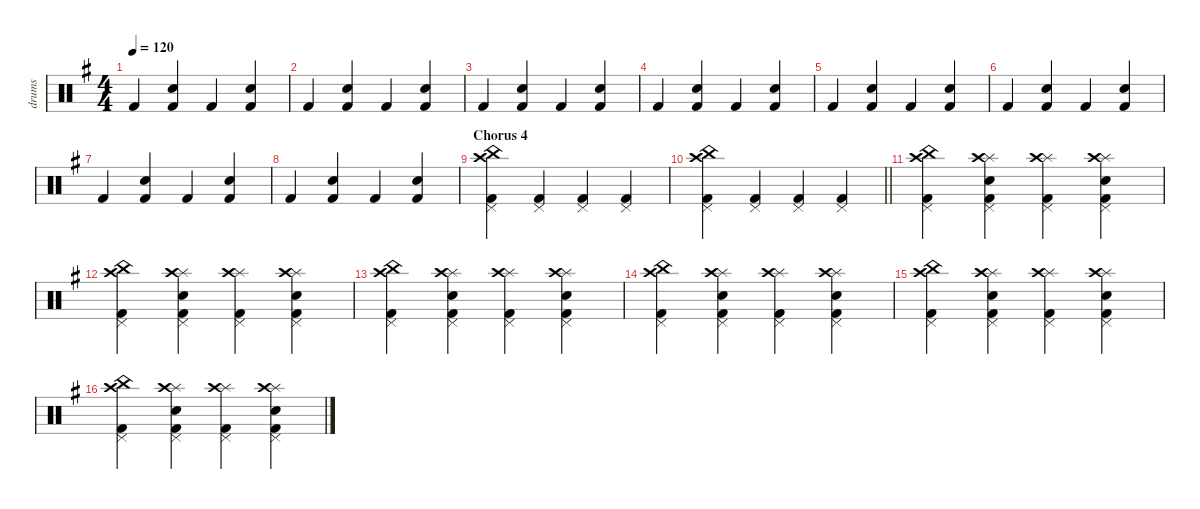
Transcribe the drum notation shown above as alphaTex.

\defaultSystemsLayout 4
\hideDynamics
\bracketExtendMode nobrackets
\otherSystemsTrackNameOrientation horizontal
\track ("drums" "drums") {instrument percussion}
\staff {score}
\articulation defaults
\ts (4 4)
\tempo 120
\clef neutral
\scale
1.07945
\ks eminor "Kick (hit) 2"{acc forcenatural}.4{dy mf beam Up}
("Kick (hit) 2"{acc forcenatural} "Snare (hit) 2"{acc forcenatural}).4{beam Up} "Kick (hit) 2"{acc forcenatural}.4{beam Up} ("Kick (hit) 2"{acc forcenatural} "Snare (hit) 2"{acc forcenatural}).4{beam Up} |
\scale
0.973518 "Kick (hit) 2"{acc forcenatural}.4{beam Up} ("Kick (hit) 2"{acc forcenatural} "Snare (hit) 2"{acc forcenatural}).4{beam Up} "Kick (hit) 2"{acc forcenatural}.4{beam Up} ("Kick (hit) 2"{acc forcenatural} "Snare (hit) 2"{acc forcenatural}).4{beam Up} |
\scale
0.973518 "Kick (hit) 2"{acc forcenatural}.4{beam Up} ("Kick (hit) 2"{acc forcenatural} "Snare (hit) 2"{acc forcenatural}).4{beam Up} "Kick (hit) 2"{acc forcenatural}.4{beam Up} ("Kick (hit) 2"{acc forcenatural} "Snare (hit) 2"{acc forcenatural}).4{beam Up} |
\scale
0.973518 "Kick (hit) 2"{acc forcenatural}.4{beam Up} ("Kick (hit) 2"{acc forcenatural} "Snare (hit) 2"{acc forcenatural}).4{beam Up} "Kick (hit) 2"{acc forcenatural}.4{beam Up} ("Kick (hit) 2"{acc forcenatural} "Snare (hit) 2"{acc forcenatural}).4{beam Up} |
\scale
1.07945 "Kick (hit) 2"{acc forcenatural}.4{beam Up} ("Kick (hit) 2"{acc forcenatural} "Snare (hit) 2"{acc forcenatural}).4{beam Up} "Kick (hit) 2"{acc forcenatural}.4{beam Up} ("Kick (hit) 2"{acc forcenatural} "Snare (hit) 2"{acc forcenatural}).4{beam Up} |
\scale
0.973518 "Kick (hit) 2"{acc forcenatural}.4{beam Up} ("Kick (hit) 2"{acc forcenatural} "Snare (hit) 2"{acc forcenatural}).4{beam Up} "Kick (hit) 2"{acc forcenatural}.4{beam Up} ("Kick (hit) 2"{acc forcenatural} "Snare (hit) 2"{acc forcenatural}).4{beam Up} |
\scale
0.973518 "Kick (hit) 2"{acc forcenatural}.4{beam Up} ("Kick (hit) 2"{acc forcenatural} "Snare (hit) 2"{acc forcenatural}).4{beam Up} "Kick (hit) 2"{acc forcenatural}.4{beam Up} ("Kick (hit) 2"{acc forcenatural} "Snare (hit) 2"{acc forcenatural}).4{beam Up} |
\scale
0.973518 "Kick (hit) 2"{acc forcenatural}.4{beam Up} ("Kick (hit) 2"{acc forcenatural} "Snare (hit) 2"{acc forcenatural}).4{beam Up} "Kick (hit) 2"{acc forcenatural}.4{beam Up} ("Kick (hit) 2"{acc forcenatural} "Snare (hit) 2"{acc forcenatural}).4{beam Up} |
\section ("" "Chorus 4")
\scale
1.07945 ("Kick (hit) 2"{acc forcenatural} "China (hit)"{acc forcenatural} "Crash high (hit)"{acc forcenatural} "Pedal Hi-Hat (hit)"{acc forcenatural}).4{beam Down} ("Kick (hit) 2"{acc forcenatural} "Pedal Hi-Hat (hit)"{acc forcenatural}).4{beam Up} ("Kick (hit) 2"{acc forcenatural} "Pedal Hi-Hat (hit)"{acc forcenatural}).4{beam Up} ("Kick (hit) 2"{acc forcenatural} "Pedal Hi-Hat (hit)"{acc forcenatural}).4{beam Up} |
\scale
0.973518
\barLineRight lightlight
("Kick (hit) 2"{acc forcenatural} "China (hit)"{acc forcenatural} "Crash high (hit)"{acc forcenatural} "Pedal Hi-Hat (hit)"{acc forcenatural}).4{beam Down} ("Kick (hit) 2"{acc forcenatural} "Pedal Hi-Hat (hit)"{acc forcenatural}).4{beam Up} ("Kick (hit) 2"{acc forcenatural} "Pedal Hi-Hat (hit)"{acc forcenatural}).4{beam Up} ("Kick (hit) 2"{acc forcenatural} "Pedal Hi-Hat (hit)"{acc forcenatural}).4{beam Up} |
\scale
0.973518 ("Kick (hit) 2"{acc forcenatural} "China (hit)"{acc forcenatural} "Crash high (hit)"{acc forcenatural} "Pedal Hi-Hat (hit)"{acc forcenatural}).4{beam Down} ("Kick (hit) 2"{acc forcenatural} "Pedal Hi-Hat (hit)"{acc forcenatural} "Snare (hit) 2"{acc forcenatural} "Splash (hit)"{acc forcenatural} "Crash high (hit)"{acc forcenatural}).4{beam Down} ("Kick (hit) 2"{acc forcenatural} "Pedal Hi-Hat (hit)"{acc forcenatural} "Splash (hit)"{acc forcenatural} "Crash high (hit)"{acc forcenatural}).4{beam Down} ("Kick (hit) 2"{acc forcenatural} "Pedal Hi-Hat (hit)"{acc forcenatural} "Snare (hit) 2"{acc forcenatural} "Splash (hit)"{acc forcenatural} "Crash high (hit)"{acc forcenatural}).4{beam Down} |
\scale
0.973518 ("Kick (hit) 2"{acc forcenatural} "China (hit)"{acc forcenatural} "Crash high (hit)"{acc forcenatural} "Pedal Hi-Hat (hit)"{acc forcenatural}).4{beam Down} ("Kick (hit) 2"{acc forcenatural} "Pedal Hi-Hat (hit)"{acc forcenatural} "Snare (hit) 2"{acc forcenatural} "Splash (hit)"{acc forcenatural} "Crash high (hit)"{acc forcenatural}).4{beam Down} ("Kick (hit) 2"{acc forcenatural} "Pedal Hi-Hat (hit)"{acc forcenatural} "Splash (hit)"{acc forcenatural} "Crash high (hit)"{acc forcenatural}).4{beam Down} ("Kick (hit) 2"{acc forcenatural} "Pedal Hi-Hat (hit)"{acc forcenatural} "Snare (hit) 2"{acc forcenatural} "Splash (hit)"{acc forcenatural} "Crash high (hit)"{acc forcenatural}).4{beam Down} |
\scale
1.07945 ("Kick (hit) 2"{acc forcenatural} "China (hit)"{acc forcenatural} "Crash high (hit)"{acc forcenatural} "Pedal Hi-Hat (hit)"{acc forcenatural}).4{beam Down} ("Kick (hit) 2"{acc forcenatural} "Pedal Hi-Hat (hit)"{acc forcenatural} "Snare (hit) 2"{acc forcenatural} "Splash (hit)"{acc forcenatural} "Crash high (hit)"{acc forcenatural}).4{beam Down} ("Kick (hit) 2"{acc forcenatural} "Pedal Hi-Hat (hit)"{acc forcenatural} "Splash (hit)"{acc forcenatural} "Crash high (hit)"{acc forcenatural}).4{beam Down} ("Kick (hit) 2"{acc forcenatural} "Pedal Hi-Hat (hit)"{acc forcenatural} "Snare (hit) 2"{acc forcenatural} "Splash (hit)"{acc forcenatural} "Crash high (hit)"{acc forcenatural}).4{beam Down} |
\scale
0.973518 ("Kick (hit) 2"{acc forcenatural} "China (hit)"{acc forcenatural} "Crash high (hit)"{acc forcenatural} "Pedal Hi-Hat (hit)"{acc forcenatural}).4{beam Down} ("Kick (hit) 2"{acc forcenatural} "Pedal Hi-Hat (hit)"{acc forcenatural} "Snare (hit) 2"{acc forcenatural} "Splash (hit)"{acc forcenatural} "Crash high (hit)"{acc forcenatural}).4{beam Down} ("Kick (hit) 2"{acc forcenatural} "Pedal Hi-Hat (hit)"{acc forcenatural} "Splash (hit)"{acc forcenatural} "Crash high (hit)"{acc forcenatural}).4{beam Down} ("Kick (hit) 2"{acc forcenatural} "Pedal Hi-Hat (hit)"{acc forcenatural} "Snare (hit) 2"{acc forcenatural} "Splash (hit)"{acc forcenatural} "Crash high (hit)"{acc forcenatural}).4{beam Down} |
\scale
0.973518 ("Kick (hit) 2"{acc forcenatural} "China (hit)"{acc forcenatural} "Crash high (hit)"{acc forcenatural} "Pedal Hi-Hat (hit)"{acc forcenatural}).4{beam Down} ("Kick (hit) 2"{acc forcenatural} "Pedal Hi-Hat (hit)"{acc forcenatural} "Snare (hit) 2"{acc forcenatural} "Splash (hit)"{acc forcenatural} "Crash high (hit)"{acc forcenatural}).4{beam Down} ("Kick (hit) 2"{acc forcenatural} "Pedal Hi-Hat (hit)"{acc forcenatural} "Splash (hit)"{acc forcenatural} "Crash high (hit)"{acc forcenatural}).4{beam Down} ("Kick (hit) 2"{acc forcenatural} "Pedal Hi-Hat (hit)"{acc forcenatural} "Snare (hit) 2"{acc forcenatural} "Splash (hit)"{acc forcenatural} "Crash high (hit)"{acc forcenatural}).4{beam Down} |
\scale
0.973518 ("Kick (hit) 2"{acc forcenatural} "China (hit)"{acc forcenatural} "Crash high (hit)"{acc forcenatural} "Pedal Hi-Hat (hit)"{acc forcenatural}).4{beam Down} ("Kick (hit) 2"{acc forcenatural} "Pedal Hi-Hat (hit)"{acc forcenatural} "Snare (hit) 2"{acc forcenatural} "Splash (hit)"{acc forcenatural} "Crash high (hit)"{acc forcenatural}).4{beam Down} ("Kick (hit) 2"{acc forcenatural} "Pedal Hi-Hat (hit)"{acc forcenatural} "Splash (hit)"{acc forcenatural} "Crash high (hit)"{acc forcenatural}).4{beam Down} ("Kick (hit) 2"{acc forcenatural} "Pedal Hi-Hat (hit)"{acc forcenatural} "Snare (hit) 2"{acc forcenatural} "Splash (hit)"{acc forcenatural} "Crash high (hit)"{acc forcenatural}).4{beam Down}
